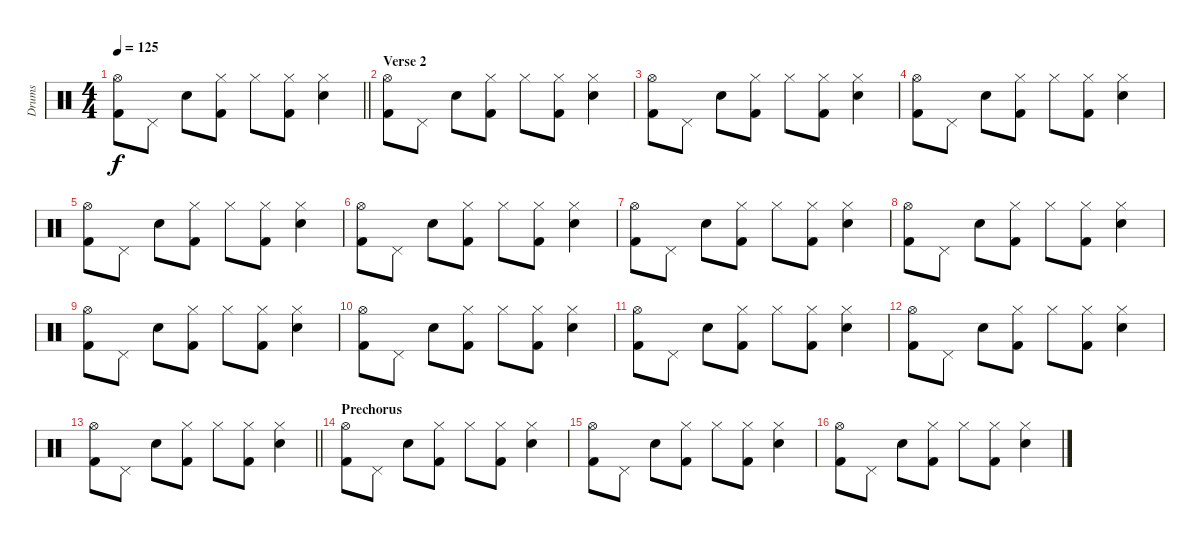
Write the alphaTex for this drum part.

\track ("Drums" "Drums") {instrument percussion}
\staff {score}
\articulation defaults
\ts (4 4)
\tempo 125
\clef neutral
\barLineRight lightlight
\ks c
("Hi-Hat (open)" "Kick (hit) 2").8{dy f} "Pedal Hi-Hat (hit)".8 "Hand Clap (hit)".8 ("Hi-Hat (closed)" "Kick (hit) 2").8 "Hi-Hat (closed)".8 ("Hi-Hat (closed)" "Kick (hit) 2").8 ("Hi-Hat (closed)" "Hand Clap (hit)").4 |
\section ("" "Verse 2")
("Hi-Hat (open)" "Kick (hit) 2").8 "Pedal Hi-Hat (hit)".8 "Hand Clap (hit)".8 ("Hi-Hat (closed)" "Kick (hit) 2").8 "Hi-Hat (closed)".8 ("Hi-Hat (closed)" "Kick (hit) 2").8 ("Hi-Hat (closed)" "Hand Clap (hit)").4 |
("Hi-Hat (open)" "Kick (hit) 2").8 "Pedal Hi-Hat (hit)".8 "Hand Clap (hit)".8 ("Hi-Hat (closed)" "Kick (hit) 2").8 "Hi-Hat (closed)".8 ("Hi-Hat (closed)" "Kick (hit) 2").8 ("Hi-Hat (closed)" "Hand Clap (hit)").4 |
("Hi-Hat (open)" "Kick (hit) 2").8 "Pedal Hi-Hat (hit)".8 "Hand Clap (hit)".8 ("Hi-Hat (closed)" "Kick (hit) 2").8 "Hi-Hat (closed)".8 ("Hi-Hat (closed)" "Kick (hit) 2").8 ("Hi-Hat (closed)" "Hand Clap (hit)").4 |
("Hi-Hat (open)" "Kick (hit) 2").8 "Pedal Hi-Hat (hit)".8 "Hand Clap (hit)".8 ("Hi-Hat (closed)" "Kick (hit) 2").8 "Hi-Hat (closed)".8 ("Hi-Hat (closed)" "Kick (hit) 2").8 ("Hi-Hat (closed)" "Hand Clap (hit)").4 |
("Hi-Hat (open)" "Kick (hit) 2").8 "Pedal Hi-Hat (hit)".8 "Hand Clap (hit)".8 ("Hi-Hat (closed)" "Kick (hit) 2").8 "Hi-Hat (closed)".8 ("Hi-Hat (closed)" "Kick (hit) 2").8 ("Hi-Hat (closed)" "Hand Clap (hit)").4 |
("Hi-Hat (open)" "Kick (hit) 2").8 "Pedal Hi-Hat (hit)".8 "Hand Clap (hit)".8 ("Hi-Hat (closed)" "Kick (hit) 2").8 "Hi-Hat (closed)".8 ("Hi-Hat (closed)" "Kick (hit) 2").8 ("Hi-Hat (closed)" "Hand Clap (hit)").4 |
("Hi-Hat (open)" "Kick (hit) 2").8 "Pedal Hi-Hat (hit)".8 "Hand Clap (hit)".8 ("Hi-Hat (closed)" "Kick (hit) 2").8 "Hi-Hat (closed)".8 ("Hi-Hat (closed)" "Kick (hit) 2").8 ("Hi-Hat (closed)" "Hand Clap (hit)").4 |
("Hi-Hat (open)" "Kick (hit) 2").8 "Pedal Hi-Hat (hit)".8 "Hand Clap (hit)".8 ("Hi-Hat (closed)" "Kick (hit) 2").8 "Hi-Hat (closed)".8 ("Hi-Hat (closed)" "Kick (hit) 2").8 ("Hi-Hat (closed)" "Hand Clap (hit)").4 |
("Hi-Hat (open)" "Kick (hit) 2").8 "Pedal Hi-Hat (hit)".8 "Hand Clap (hit)".8 ("Hi-Hat (closed)" "Kick (hit) 2").8 "Hi-Hat (closed)".8 ("Hi-Hat (closed)" "Kick (hit) 2").8 ("Hi-Hat (closed)" "Hand Clap (hit)").4 |
("Hi-Hat (open)" "Kick (hit) 2").8 "Pedal Hi-Hat (hit)".8 "Hand Clap (hit)".8 ("Hi-Hat (closed)" "Kick (hit) 2").8 "Hi-Hat (closed)".8 ("Hi-Hat (closed)" "Kick (hit) 2").8 ("Hi-Hat (closed)" "Hand Clap (hit)").4 |
("Hi-Hat (open)" "Kick (hit) 2").8 "Pedal Hi-Hat (hit)".8 "Hand Clap (hit)".8 ("Hi-Hat (closed)" "Kick (hit) 2").8 "Hi-Hat (closed)".8 ("Hi-Hat (closed)" "Kick (hit) 2").8 ("Hi-Hat (closed)" "Hand Clap (hit)").4 |
\barLineRight lightlight
("Hi-Hat (open)" "Kick (hit) 2").8 "Pedal Hi-Hat (hit)".8 "Hand Clap (hit)".8 ("Hi-Hat (closed)" "Kick (hit) 2").8 "Hi-Hat (closed)".8 ("Hi-Hat (closed)" "Kick (hit) 2").8 ("Hi-Hat (closed)" "Hand Clap (hit)").4 |
\section ("" "Prechorus")
("Hi-Hat (open)" "Kick (hit) 2").8 "Pedal Hi-Hat (hit)".8 "Hand Clap (hit)".8 ("Hi-Hat (closed)" "Kick (hit) 2").8 "Hi-Hat (closed)".8 ("Hi-Hat (closed)" "Kick (hit) 2").8 ("Hi-Hat (closed)" "Hand Clap (hit)").4 |
("Hi-Hat (open)" "Kick (hit) 2").8 "Pedal Hi-Hat (hit)".8 "Hand Clap (hit)".8 ("Hi-Hat (closed)" "Kick (hit) 2").8 "Hi-Hat (closed)".8 ("Hi-Hat (closed)" "Kick (hit) 2").8 ("Hi-Hat (closed)" "Hand Clap (hit)").4 |
("Hi-Hat (open)" "Kick (hit) 2").8 "Pedal Hi-Hat (hit)".8 "Hand Clap (hit)".8 ("Hi-Hat (closed)" "Kick (hit) 2").8 "Hi-Hat (closed)".8 ("Hi-Hat (closed)" "Kick (hit) 2").8 ("Hi-Hat (closed)" "Hand Clap (hit)").4
